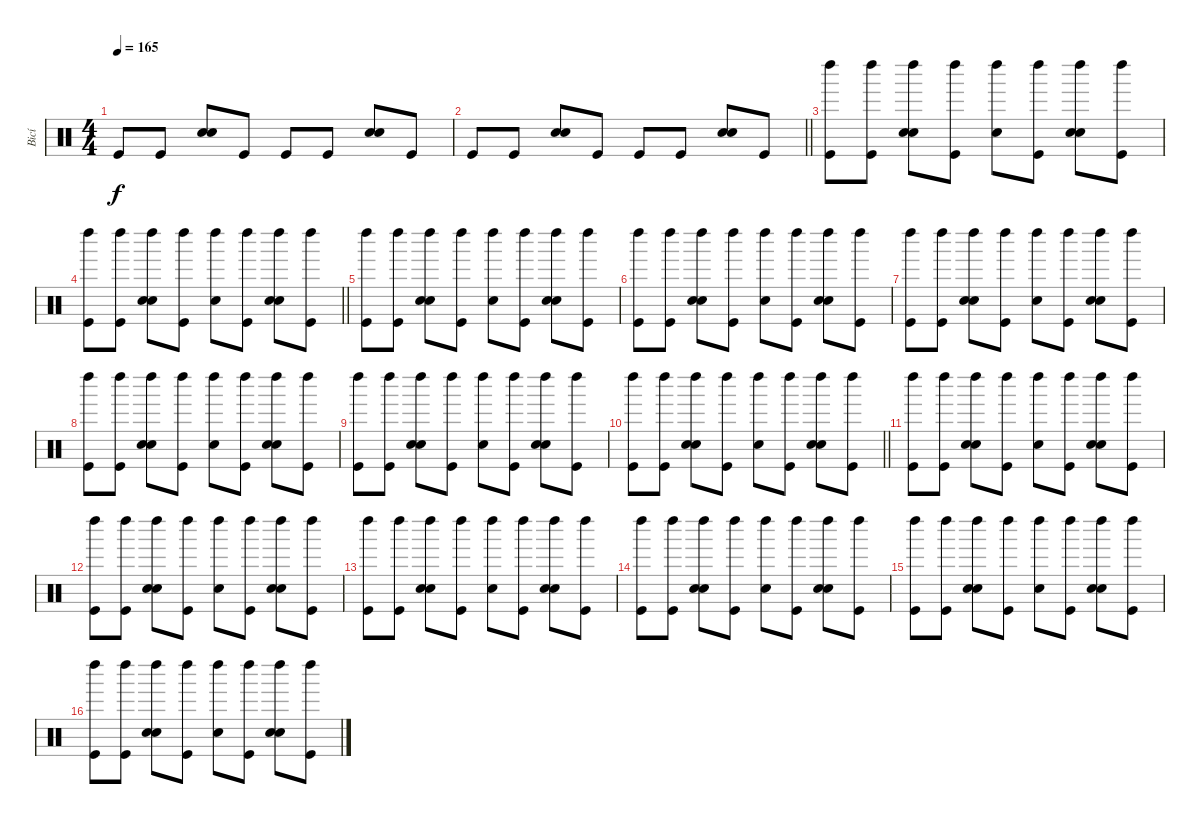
\track ("Bicí" "Bicí") {instrument percussion}
\staff {score}
\articulation defaults
\ts (4 4)
\tempo 165
\clef neutral
\ks c "Kick (hit)".8{dy f} "Kick (hit)".8
("Hand Clap (hit)" "Electric Snare (hit)").8 "Kick (hit)".8 "Kick (hit)".8 "Kick (hit)".8 ("Hand Clap (hit)" "Electric Snare (hit)").8 "Kick (hit)".8 |
\barLineRight lightlight "Kick (hit)".8 "Kick (hit)".8
("Hand Clap (hit)" "Electric Snare (hit)").8 "Kick (hit)".8 "Kick (hit)".8 "Kick (hit)".8 ("Hand Clap (hit)" "Electric Snare (hit)").8 "Kick (hit)".8 |
\section ("" "")
("Left Maraca (hit)" "Kick (hit)").8 ("Left Maraca (hit)" "Kick (hit)").8 ("Left Maraca (hit)" "Hand Clap (hit)" "Electric Snare (hit)").8 ("Left Maraca (hit)" "Kick (hit)").8 ("Left Maraca (hit)" "Snare (hit)").8 ("Left Maraca (hit)" "Kick (hit)").8 ("Left Maraca (hit)" "Hand Clap (hit)" "Electric Snare (hit)").8 ("Left Maraca (hit)" "Kick (hit)").8 |
\barLineRight lightlight
("Left Maraca (hit)" "Kick (hit)").8 ("Left Maraca (hit)" "Kick (hit)").8 ("Left Maraca (hit)" "Hand Clap (hit)" "Electric Snare (hit)").8 ("Left Maraca (hit)" "Kick (hit)").8 ("Left Maraca (hit)" "Snare (hit)").8 ("Left Maraca (hit)" "Kick (hit)").8 ("Left Maraca (hit)" "Hand Clap (hit)" "Electric Snare (hit)").8 ("Left Maraca (hit)" "Kick (hit)").8 |
("Left Maraca (hit)" "Kick (hit)").8 ("Left Maraca (hit)" "Kick (hit)").8 ("Left Maraca (hit)" "Hand Clap (hit)" "Electric Snare (hit)").8 ("Left Maraca (hit)" "Kick (hit)").8 ("Left Maraca (hit)" "Snare (hit)").8 ("Left Maraca (hit)" "Kick (hit)").8 ("Left Maraca (hit)" "Hand Clap (hit)" "Electric Snare (hit)").8 ("Left Maraca (hit)" "Kick (hit)").8 |
("Left Maraca (hit)" "Kick (hit)").8 ("Left Maraca (hit)" "Kick (hit)").8 ("Left Maraca (hit)" "Hand Clap (hit)" "Electric Snare (hit)").8 ("Left Maraca (hit)" "Kick (hit)").8 ("Left Maraca (hit)" "Snare (hit)").8 ("Left Maraca (hit)" "Kick (hit)").8 ("Left Maraca (hit)" "Hand Clap (hit)" "Electric Snare (hit)").8 ("Left Maraca (hit)" "Kick (hit)").8 |
("Left Maraca (hit)" "Kick (hit)").8 ("Left Maraca (hit)" "Kick (hit)").8 ("Left Maraca (hit)" "Hand Clap (hit)" "Electric Snare (hit)").8 ("Left Maraca (hit)" "Kick (hit)").8 ("Left Maraca (hit)" "Snare (hit)").8 ("Left Maraca (hit)" "Kick (hit)").8 ("Left Maraca (hit)" "Hand Clap (hit)" "Electric Snare (hit)").8 ("Left Maraca (hit)" "Kick (hit)").8 |
("Left Maraca (hit)" "Kick (hit)").8 ("Left Maraca (hit)" "Kick (hit)").8 ("Left Maraca (hit)" "Hand Clap (hit)" "Electric Snare (hit)").8 ("Left Maraca (hit)" "Kick (hit)").8 ("Left Maraca (hit)" "Snare (hit)").8 ("Left Maraca (hit)" "Kick (hit)").8 ("Left Maraca (hit)" "Hand Clap (hit)" "Electric Snare (hit)").8 ("Left Maraca (hit)" "Kick (hit)").8 |
("Left Maraca (hit)" "Kick (hit)").8 ("Left Maraca (hit)" "Kick (hit)").8 ("Left Maraca (hit)" "Hand Clap (hit)" "Electric Snare (hit)").8 ("Left Maraca (hit)" "Kick (hit)").8 ("Left Maraca (hit)" "Snare (hit)").8 ("Left Maraca (hit)" "Kick (hit)").8 ("Left Maraca (hit)" "Hand Clap (hit)" "Electric Snare (hit)").8 ("Left Maraca (hit)" "Kick (hit)").8 |
\barLineRight lightlight
("Left Maraca (hit)" "Kick (hit)").8 ("Left Maraca (hit)" "Kick (hit)").8 ("Left Maraca (hit)" "Hand Clap (hit)" "Electric Snare (hit)").8 ("Left Maraca (hit)" "Kick (hit)").8 ("Left Maraca (hit)" "Snare (hit)").8 ("Left Maraca (hit)" "Kick (hit)").8 ("Left Maraca (hit)" "Hand Clap (hit)" "Electric Snare (hit)").8 ("Left Maraca (hit)" "Kick (hit)").8 |
("Left Maraca (hit)" "Kick (hit)").8 ("Left Maraca (hit)" "Kick (hit)").8 ("Left Maraca (hit)" "Hand Clap (hit)" "Electric Snare (hit)").8 ("Left Maraca (hit)" "Kick (hit)").8 ("Left Maraca (hit)" "Snare (hit)").8 ("Left Maraca (hit)" "Kick (hit)").8 ("Left Maraca (hit)" "Hand Clap (hit)" "Electric Snare (hit)").8 ("Left Maraca (hit)" "Kick (hit)").8 |
("Left Maraca (hit)" "Kick (hit)").8 ("Left Maraca (hit)" "Kick (hit)").8 ("Left Maraca (hit)" "Hand Clap (hit)" "Electric Snare (hit)").8 ("Left Maraca (hit)" "Kick (hit)").8 ("Left Maraca (hit)" "Snare (hit)").8 ("Left Maraca (hit)" "Kick (hit)").8 ("Left Maraca (hit)" "Hand Clap (hit)" "Electric Snare (hit)").8 ("Left Maraca (hit)" "Kick (hit)").8 |
("Left Maraca (hit)" "Kick (hit)").8 ("Left Maraca (hit)" "Kick (hit)").8 ("Left Maraca (hit)" "Hand Clap (hit)" "Electric Snare (hit)").8 ("Left Maraca (hit)" "Kick (hit)").8 ("Left Maraca (hit)" "Snare (hit)").8 ("Left Maraca (hit)" "Kick (hit)").8 ("Left Maraca (hit)" "Hand Clap (hit)" "Electric Snare (hit)").8 ("Left Maraca (hit)" "Kick (hit)").8 |
("Left Maraca (hit)" "Kick (hit)").8 ("Left Maraca (hit)" "Kick (hit)").8 ("Left Maraca (hit)" "Hand Clap (hit)" "Electric Snare (hit)").8 ("Left Maraca (hit)" "Kick (hit)").8 ("Left Maraca (hit)" "Snare (hit)").8 ("Left Maraca (hit)" "Kick (hit)").8 ("Left Maraca (hit)" "Hand Clap (hit)" "Electric Snare (hit)").8 ("Left Maraca (hit)" "Kick (hit)").8 |
("Left Maraca (hit)" "Kick (hit)").8 ("Left Maraca (hit)" "Kick (hit)").8 ("Left Maraca (hit)" "Hand Clap (hit)" "Electric Snare (hit)").8 ("Left Maraca (hit)" "Kick (hit)").8 ("Left Maraca (hit)" "Snare (hit)").8 ("Left Maraca (hit)" "Kick (hit)").8 ("Left Maraca (hit)" "Hand Clap (hit)" "Electric Snare (hit)").8 ("Left Maraca (hit)" "Kick (hit)").8 |
("Left Maraca (hit)" "Kick (hit)").8 ("Left Maraca (hit)" "Kick (hit)").8 ("Left Maraca (hit)" "Hand Clap (hit)" "Electric Snare (hit)").8 ("Left Maraca (hit)" "Kick (hit)").8 ("Left Maraca (hit)" "Snare (hit)").8 ("Left Maraca (hit)" "Kick (hit)").8 ("Left Maraca (hit)" "Hand Clap (hit)" "Electric Snare (hit)").8 ("Left Maraca (hit)" "Kick (hit)").8
